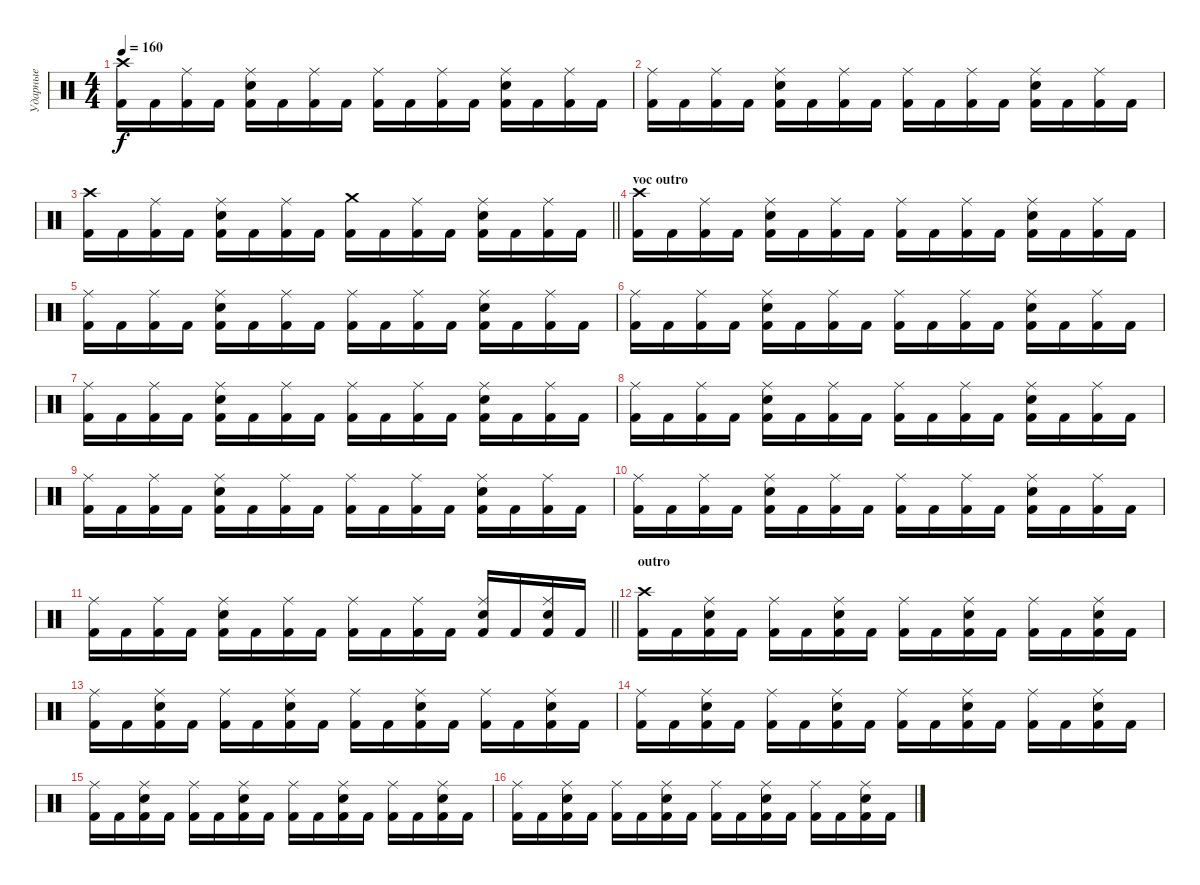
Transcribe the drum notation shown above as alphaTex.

\track ("Ударные" "Ударные") {instrument percussion}
\staff {score}
\articulation defaults
\ts (4 4)
\tempo 160
\clef neutral
\ks c
("Crash high (hit)" "Kick (hit) 2").16{dy f} "Kick (hit) 2".16 ("Ride (middle)" "Kick (hit) 2").16 "Kick (hit) 2".16 ("Ride (middle)" "Electric Snare (hit)" "Kick (hit) 2").16 "Kick (hit) 2".16 ("Ride (middle)" "Kick (hit) 2").16 "Kick (hit) 2".16 ("Ride (middle)" "Kick (hit) 2").16 "Kick (hit) 2".16 ("Ride (middle)" "Kick (hit) 2").16 "Kick (hit) 2".16 ("Ride (middle)" "Electric Snare (hit)" "Kick (hit) 2").16 "Kick (hit) 2".16 ("Ride (middle)" "Kick (hit) 2").16 "Kick (hit) 2".16 |
("Ride (middle)" "Kick (hit) 2").16 "Kick (hit) 2".16 ("Ride (middle)" "Kick (hit) 2").16 "Kick (hit) 2".16 ("Ride (middle)" "Electric Snare (hit)" "Kick (hit) 2").16 "Kick (hit) 2".16 ("Ride (middle)" "Kick (hit) 2").16 "Kick (hit) 2".16 ("Ride (middle)" "Kick (hit) 2").16 "Kick (hit) 2".16 ("Ride (middle)" "Kick (hit) 2").16 "Kick (hit) 2".16 ("Ride (middle)" "Electric Snare (hit)" "Kick (hit) 2").16 "Kick (hit) 2".16 ("Ride (middle)" "Kick (hit) 2").16 "Kick (hit) 2".16 |
\barLineRight lightlight
("Crash high (hit)" "Kick (hit) 2").16 "Kick (hit) 2".16 ("Ride (middle)" "Kick (hit) 2").16 "Kick (hit) 2".16 ("Ride (middle)" "Electric Snare (hit)" "Kick (hit) 2").16 "Kick (hit) 2".16 ("Ride (middle)" "Kick (hit) 2").16 "Kick (hit) 2".16 ("Crash medium (hit)" "Kick (hit) 2").16 "Kick (hit) 2".16 ("Ride (middle)" "Kick (hit) 2").16 "Kick (hit) 2".16 ("Ride (middle)" "Electric Snare (hit)" "Kick (hit) 2").16 "Kick (hit) 2".16 ("Ride (middle)" "Kick (hit) 2").16 "Kick (hit) 2".16 |
\section ("" "voc outro")
("Crash high (hit)" "Kick (hit) 2").16 "Kick (hit) 2".16 ("Ride (middle)" "Kick (hit) 2").16 "Kick (hit) 2".16 ("Ride (middle)" "Electric Snare (hit)" "Kick (hit) 2").16 "Kick (hit) 2".16 ("Ride (middle)" "Kick (hit) 2").16 "Kick (hit) 2".16 ("Ride (middle)" "Kick (hit) 2").16 "Kick (hit) 2".16 ("Ride (middle)" "Kick (hit) 2").16 "Kick (hit) 2".16 ("Ride (middle)" "Electric Snare (hit)" "Kick (hit) 2").16 "Kick (hit) 2".16 ("Ride (middle)" "Kick (hit) 2").16 "Kick (hit) 2".16 |
("Ride (middle)" "Kick (hit) 2").16 "Kick (hit) 2".16 ("Ride (middle)" "Kick (hit) 2").16 "Kick (hit) 2".16 ("Ride (middle)" "Electric Snare (hit)" "Kick (hit) 2").16 "Kick (hit) 2".16 ("Ride (middle)" "Kick (hit) 2").16 "Kick (hit) 2".16 ("Ride (middle)" "Kick (hit) 2").16 "Kick (hit) 2".16 ("Ride (middle)" "Kick (hit) 2").16 "Kick (hit) 2".16 ("Ride (middle)" "Electric Snare (hit)" "Kick (hit) 2").16 "Kick (hit) 2".16 ("Ride (middle)" "Kick (hit) 2").16 "Kick (hit) 2".16 |
("Ride (middle)" "Kick (hit) 2").16 "Kick (hit) 2".16 ("Ride (middle)" "Kick (hit) 2").16 "Kick (hit) 2".16 ("Ride (middle)" "Electric Snare (hit)" "Kick (hit) 2").16 "Kick (hit) 2".16 ("Ride (middle)" "Kick (hit) 2").16 "Kick (hit) 2".16 ("Ride (middle)" "Kick (hit) 2").16 "Kick (hit) 2".16 ("Ride (middle)" "Kick (hit) 2").16 "Kick (hit) 2".16 ("Ride (middle)" "Electric Snare (hit)" "Kick (hit) 2").16 "Kick (hit) 2".16 ("Ride (middle)" "Kick (hit) 2").16 "Kick (hit) 2".16 |
("Ride (middle)" "Kick (hit) 2").16 "Kick (hit) 2".16 ("Ride (middle)" "Kick (hit) 2").16 "Kick (hit) 2".16 ("Ride (middle)" "Electric Snare (hit)" "Kick (hit) 2").16 "Kick (hit) 2".16 ("Ride (middle)" "Kick (hit) 2").16 "Kick (hit) 2".16 ("Ride (middle)" "Kick (hit) 2").16 "Kick (hit) 2".16 ("Ride (middle)" "Kick (hit) 2").16 "Kick (hit) 2".16 ("Ride (middle)" "Electric Snare (hit)" "Kick (hit) 2").16 "Kick (hit) 2".16 ("Ride (middle)" "Kick (hit) 2").16 "Kick (hit) 2".16 |
("Ride (middle)" "Kick (hit) 2").16 "Kick (hit) 2".16 ("Ride (middle)" "Kick (hit) 2").16 "Kick (hit) 2".16 ("Ride (middle)" "Electric Snare (hit)" "Kick (hit) 2").16 "Kick (hit) 2".16 ("Ride (middle)" "Kick (hit) 2").16 "Kick (hit) 2".16 ("Ride (middle)" "Kick (hit) 2").16 "Kick (hit) 2".16 ("Ride (middle)" "Kick (hit) 2").16 "Kick (hit) 2".16 ("Ride (middle)" "Electric Snare (hit)" "Kick (hit) 2").16 "Kick (hit) 2".16 ("Ride (middle)" "Kick (hit) 2").16 "Kick (hit) 2".16 |
("Ride (middle)" "Kick (hit) 2").16 "Kick (hit) 2".16 ("Ride (middle)" "Kick (hit) 2").16 "Kick (hit) 2".16 ("Ride (middle)" "Electric Snare (hit)" "Kick (hit) 2").16 "Kick (hit) 2".16 ("Ride (middle)" "Kick (hit) 2").16 "Kick (hit) 2".16 ("Ride (middle)" "Kick (hit) 2").16 "Kick (hit) 2".16 ("Ride (middle)" "Kick (hit) 2").16 "Kick (hit) 2".16 ("Ride (middle)" "Electric Snare (hit)" "Kick (hit) 2").16 "Kick (hit) 2".16 ("Ride (middle)" "Kick (hit) 2").16 "Kick (hit) 2".16 |
("Ride (middle)" "Kick (hit) 2").16 "Kick (hit) 2".16 ("Ride (middle)" "Kick (hit) 2").16 "Kick (hit) 2".16 ("Ride (middle)" "Electric Snare (hit)" "Kick (hit) 2").16 "Kick (hit) 2".16 ("Ride (middle)" "Kick (hit) 2").16 "Kick (hit) 2".16 ("Ride (middle)" "Kick (hit) 2").16 "Kick (hit) 2".16 ("Ride (middle)" "Kick (hit) 2").16 "Kick (hit) 2".16 ("Ride (middle)" "Electric Snare (hit)" "Kick (hit) 2").16 "Kick (hit) 2".16 ("Ride (middle)" "Kick (hit) 2").16 "Kick (hit) 2".16 |
\barLineRight lightlight
("Ride (middle)" "Kick (hit) 2").16 "Kick (hit) 2".16 ("Ride (middle)" "Kick (hit) 2").16 "Kick (hit) 2".16 ("Ride (middle)" "Electric Snare (hit)" "Kick (hit) 2").16 "Kick (hit) 2".16 ("Ride (middle)" "Kick (hit) 2").16 "Kick (hit) 2".16 ("Ride (middle)" "Kick (hit) 2").16 "Kick (hit) 2".16 ("Ride (middle)" "Kick (hit) 2").16 "Kick (hit) 2".16 ("Ride (middle)" "Electric Snare (hit)" "Kick (hit) 2").16 "Kick (hit) 2".16 ("Ride (middle)" "Electric Snare (hit)" "Kick (hit) 2").16 "Kick (hit) 2".16 |
\section ("" "outro")
("Crash high (hit)" "Kick (hit) 2").16 "Kick (hit) 2".16 ("Ride (middle)" "Electric Snare (hit)" "Kick (hit) 2").16 "Kick (hit) 2".16 ("Ride (middle)" "Kick (hit) 2").16 "Kick (hit) 2".16 ("Ride (middle)" "Electric Snare (hit)" "Kick (hit) 2").16 "Kick (hit) 2".16 ("Ride (middle)" "Kick (hit) 2").16 "Kick (hit) 2".16 ("Ride (middle)" "Electric Snare (hit)" "Kick (hit) 2").16 "Kick (hit) 2".16 ("Ride (middle)" "Kick (hit) 2").16 "Kick (hit) 2".16 ("Ride (middle)" "Electric Snare (hit)" "Kick (hit) 2").16 "Kick (hit) 2".16 |
("Ride (middle)" "Kick (hit) 2").16 "Kick (hit) 2".16 ("Ride (middle)" "Electric Snare (hit)" "Kick (hit) 2").16 "Kick (hit) 2".16 ("Ride (middle)" "Kick (hit) 2").16 "Kick (hit) 2".16 ("Ride (middle)" "Electric Snare (hit)" "Kick (hit) 2").16 "Kick (hit) 2".16 ("Ride (middle)" "Kick (hit) 2").16 "Kick (hit) 2".16 ("Ride (middle)" "Electric Snare (hit)" "Kick (hit) 2").16 "Kick (hit) 2".16 ("Ride (middle)" "Kick (hit) 2").16 "Kick (hit) 2".16 ("Ride (middle)" "Electric Snare (hit)" "Kick (hit) 2").16 "Kick (hit) 2".16 |
("Ride (middle)" "Kick (hit) 2").16 "Kick (hit) 2".16 ("Ride (middle)" "Electric Snare (hit)" "Kick (hit) 2").16 "Kick (hit) 2".16 ("Ride (middle)" "Kick (hit) 2").16 "Kick (hit) 2".16 ("Ride (middle)" "Electric Snare (hit)" "Kick (hit) 2").16 "Kick (hit) 2".16 ("Ride (middle)" "Kick (hit) 2").16 "Kick (hit) 2".16 ("Ride (middle)" "Electric Snare (hit)" "Kick (hit) 2").16 "Kick (hit) 2".16 ("Ride (middle)" "Kick (hit) 2").16 "Kick (hit) 2".16 ("Ride (middle)" "Electric Snare (hit)" "Kick (hit) 2").16 "Kick (hit) 2".16 |
("Ride (middle)" "Kick (hit) 2").16 "Kick (hit) 2".16 ("Ride (middle)" "Electric Snare (hit)" "Kick (hit) 2").16 "Kick (hit) 2".16 ("Ride (middle)" "Kick (hit) 2").16 "Kick (hit) 2".16 ("Ride (middle)" "Electric Snare (hit)" "Kick (hit) 2").16 "Kick (hit) 2".16 ("Ride (middle)" "Kick (hit) 2").16 "Kick (hit) 2".16 ("Ride (middle)" "Electric Snare (hit)" "Kick (hit) 2").16 "Kick (hit) 2".16 ("Ride (middle)" "Kick (hit) 2").16 "Kick (hit) 2".16 ("Ride (middle)" "Electric Snare (hit)" "Kick (hit) 2").16 "Kick (hit) 2".16 |
("Ride (middle)" "Kick (hit) 2").16 "Kick (hit) 2".16 ("Ride (middle)" "Electric Snare (hit)" "Kick (hit) 2").16 "Kick (hit) 2".16 ("Ride (middle)" "Kick (hit) 2").16 "Kick (hit) 2".16 ("Ride (middle)" "Electric Snare (hit)" "Kick (hit) 2").16 "Kick (hit) 2".16 ("Ride (middle)" "Kick (hit) 2").16 "Kick (hit) 2".16 ("Ride (middle)" "Electric Snare (hit)" "Kick (hit) 2").16 "Kick (hit) 2".16 ("Ride (middle)" "Kick (hit) 2").16 "Kick (hit) 2".16 ("Ride (middle)" "Electric Snare (hit)" "Kick (hit) 2").16 "Kick (hit) 2".16
